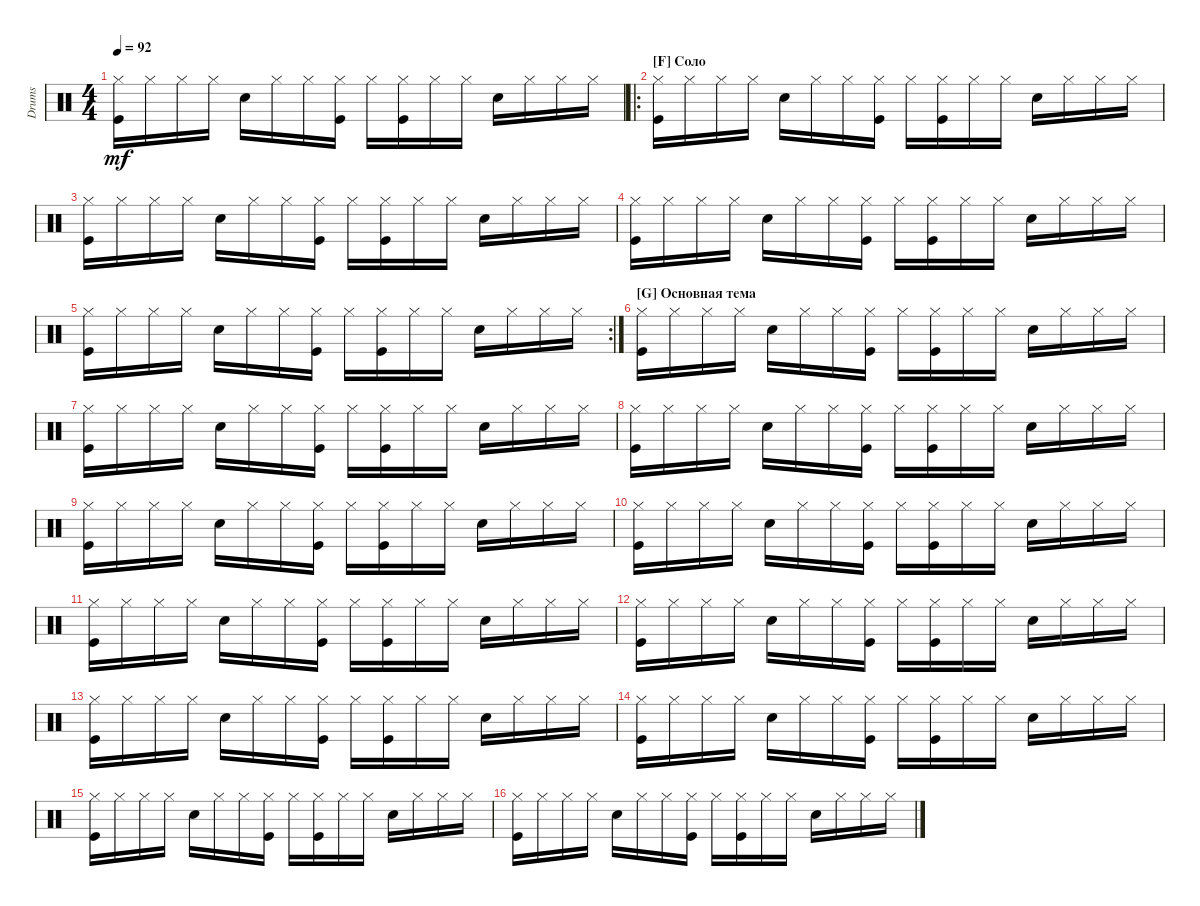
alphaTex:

\track ("Drumkit" "Drums") {instrument percussion}
\staff {score}
\articulation defaults
\ts (4 4)
\tempo 92
\clef neutral
\ks c
("Kick (hit)" "Hi-Hat (closed)").16{dy mf} "Hi-Hat (closed)".16 "Hi-Hat (closed)".16 "Hi-Hat (closed)".16 "Snare (hit) 2".16 "Hi-Hat (closed)".16 "Hi-Hat (closed)".16 ("Hi-Hat (closed)" "Kick (hit)").16 "Hi-Hat (closed)".16 ("Hi-Hat (closed)" "Kick (hit)").16 "Hi-Hat (closed)".16 "Hi-Hat (closed)".16 "Snare (hit) 2".16 "Hi-Hat (closed)".16 "Hi-Hat (closed)".16 "Hi-Hat (closed)".16 |
\ro
\section ("F" "Соло")
("Kick (hit)" "Hi-Hat (closed)").16 "Hi-Hat (closed)".16 "Hi-Hat (closed)".16 "Hi-Hat (closed)".16 "Snare (hit) 2".16 "Hi-Hat (closed)".16 "Hi-Hat (closed)".16 ("Hi-Hat (closed)" "Kick (hit)").16 "Hi-Hat (closed)".16 ("Hi-Hat (closed)" "Kick (hit)").16 "Hi-Hat (closed)".16 "Hi-Hat (closed)".16 "Snare (hit) 2".16 "Hi-Hat (closed)".16 "Hi-Hat (closed)".16 "Hi-Hat (closed)".16 |
("Kick (hit)" "Hi-Hat (closed)").16 "Hi-Hat (closed)".16 "Hi-Hat (closed)".16 "Hi-Hat (closed)".16 "Snare (hit) 2".16 "Hi-Hat (closed)".16 "Hi-Hat (closed)".16 ("Hi-Hat (closed)" "Kick (hit)").16 "Hi-Hat (closed)".16 ("Hi-Hat (closed)" "Kick (hit)").16 "Hi-Hat (closed)".16 "Hi-Hat (closed)".16 "Snare (hit) 2".16 "Hi-Hat (closed)".16 "Hi-Hat (closed)".16 "Hi-Hat (closed)".16 |
("Kick (hit)" "Hi-Hat (closed)").16 "Hi-Hat (closed)".16 "Hi-Hat (closed)".16 "Hi-Hat (closed)".16 "Snare (hit) 2".16 "Hi-Hat (closed)".16 "Hi-Hat (closed)".16 ("Hi-Hat (closed)" "Kick (hit)").16 "Hi-Hat (closed)".16 ("Hi-Hat (closed)" "Kick (hit)").16 "Hi-Hat (closed)".16 "Hi-Hat (closed)".16 "Snare (hit) 2".16 "Hi-Hat (closed)".16 "Hi-Hat (closed)".16 "Hi-Hat (closed)".16 |
\rc 2
("Kick (hit)" "Hi-Hat (closed)").16 "Hi-Hat (closed)".16 "Hi-Hat (closed)".16 "Hi-Hat (closed)".16 "Snare (hit) 2".16 "Hi-Hat (closed)".16 "Hi-Hat (closed)".16 ("Hi-Hat (closed)" "Kick (hit)").16 "Hi-Hat (closed)".16 ("Hi-Hat (closed)" "Kick (hit)").16 "Hi-Hat (closed)".16 "Hi-Hat (closed)".16 "Snare (hit) 2".16 "Hi-Hat (closed)".16 "Hi-Hat (closed)".16 "Hi-Hat (closed)".16 |
\section ("G" "Основная тема")
("Kick (hit)" "Hi-Hat (closed)").16 "Hi-Hat (closed)".16 "Hi-Hat (closed)".16 "Hi-Hat (closed)".16 "Snare (hit) 2".16 "Hi-Hat (closed)".16 "Hi-Hat (closed)".16 ("Hi-Hat (closed)" "Kick (hit)").16 "Hi-Hat (closed)".16 ("Hi-Hat (closed)" "Kick (hit)").16 "Hi-Hat (closed)".16 "Hi-Hat (closed)".16 "Snare (hit) 2".16 "Hi-Hat (closed)".16 "Hi-Hat (closed)".16 "Hi-Hat (closed)".16 |
("Kick (hit)" "Hi-Hat (closed)").16 "Hi-Hat (closed)".16 "Hi-Hat (closed)".16 "Hi-Hat (closed)".16 "Snare (hit) 2".16 "Hi-Hat (closed)".16 "Hi-Hat (closed)".16 ("Hi-Hat (closed)" "Kick (hit)").16 "Hi-Hat (closed)".16 ("Hi-Hat (closed)" "Kick (hit)").16 "Hi-Hat (closed)".16 "Hi-Hat (closed)".16 "Snare (hit) 2".16 "Hi-Hat (closed)".16 "Hi-Hat (closed)".16 "Hi-Hat (closed)".16 |
("Kick (hit)" "Hi-Hat (closed)").16 "Hi-Hat (closed)".16 "Hi-Hat (closed)".16 "Hi-Hat (closed)".16 "Snare (hit) 2".16 "Hi-Hat (closed)".16 "Hi-Hat (closed)".16 ("Hi-Hat (closed)" "Kick (hit)").16 "Hi-Hat (closed)".16 ("Hi-Hat (closed)" "Kick (hit)").16 "Hi-Hat (closed)".16 "Hi-Hat (closed)".16 "Snare (hit) 2".16 "Hi-Hat (closed)".16 "Hi-Hat (closed)".16 "Hi-Hat (closed)".16 |
("Kick (hit)" "Hi-Hat (closed)").16 "Hi-Hat (closed)".16 "Hi-Hat (closed)".16 "Hi-Hat (closed)".16 "Snare (hit) 2".16 "Hi-Hat (closed)".16 "Hi-Hat (closed)".16 ("Hi-Hat (closed)" "Kick (hit)").16 "Hi-Hat (closed)".16 ("Hi-Hat (closed)" "Kick (hit)").16 "Hi-Hat (closed)".16 "Hi-Hat (closed)".16 "Snare (hit) 2".16 "Hi-Hat (closed)".16 "Hi-Hat (closed)".16 "Hi-Hat (closed)".16 |
("Kick (hit)" "Hi-Hat (closed)").16 "Hi-Hat (closed)".16 "Hi-Hat (closed)".16 "Hi-Hat (closed)".16 "Snare (hit) 2".16 "Hi-Hat (closed)".16 "Hi-Hat (closed)".16 ("Hi-Hat (closed)" "Kick (hit)").16 "Hi-Hat (closed)".16 ("Hi-Hat (closed)" "Kick (hit)").16 "Hi-Hat (closed)".16 "Hi-Hat (closed)".16 "Snare (hit) 2".16 "Hi-Hat (closed)".16 "Hi-Hat (closed)".16 "Hi-Hat (closed)".16 |
("Kick (hit)" "Hi-Hat (closed)").16 "Hi-Hat (closed)".16 "Hi-Hat (closed)".16 "Hi-Hat (closed)".16 "Snare (hit) 2".16 "Hi-Hat (closed)".16 "Hi-Hat (closed)".16 ("Hi-Hat (closed)" "Kick (hit)").16 "Hi-Hat (closed)".16 ("Hi-Hat (closed)" "Kick (hit)").16 "Hi-Hat (closed)".16 "Hi-Hat (closed)".16 "Snare (hit) 2".16 "Hi-Hat (closed)".16 "Hi-Hat (closed)".16 "Hi-Hat (closed)".16 |
("Kick (hit)" "Hi-Hat (closed)").16 "Hi-Hat (closed)".16 "Hi-Hat (closed)".16 "Hi-Hat (closed)".16 "Snare (hit) 2".16 "Hi-Hat (closed)".16 "Hi-Hat (closed)".16 ("Hi-Hat (closed)" "Kick (hit)").16 "Hi-Hat (closed)".16 ("Hi-Hat (closed)" "Kick (hit)").16 "Hi-Hat (closed)".16 "Hi-Hat (closed)".16 "Snare (hit) 2".16 "Hi-Hat (closed)".16 "Hi-Hat (closed)".16 "Hi-Hat (closed)".16 |
("Kick (hit)" "Hi-Hat (closed)").16 "Hi-Hat (closed)".16 "Hi-Hat (closed)".16 "Hi-Hat (closed)".16 "Snare (hit) 2".16 "Hi-Hat (closed)".16 "Hi-Hat (closed)".16 ("Hi-Hat (closed)" "Kick (hit)").16 "Hi-Hat (closed)".16 ("Hi-Hat (closed)" "Kick (hit)").16 "Hi-Hat (closed)".16 "Hi-Hat (closed)".16 "Snare (hit) 2".16 "Hi-Hat (closed)".16 "Hi-Hat (closed)".16 "Hi-Hat (closed)".16 |
("Kick (hit)" "Hi-Hat (closed)").16 "Hi-Hat (closed)".16 "Hi-Hat (closed)".16 "Hi-Hat (closed)".16 "Snare (hit) 2".16 "Hi-Hat (closed)".16 "Hi-Hat (closed)".16 ("Hi-Hat (closed)" "Kick (hit)").16 "Hi-Hat (closed)".16 ("Hi-Hat (closed)" "Kick (hit)").16 "Hi-Hat (closed)".16 "Hi-Hat (closed)".16 "Snare (hit) 2".16 "Hi-Hat (closed)".16 "Hi-Hat (closed)".16 "Hi-Hat (closed)".16 |
("Kick (hit)" "Hi-Hat (closed)").16 "Hi-Hat (closed)".16 "Hi-Hat (closed)".16 "Hi-Hat (closed)".16 "Snare (hit) 2".16 "Hi-Hat (closed)".16 "Hi-Hat (closed)".16 ("Hi-Hat (closed)" "Kick (hit)").16 "Hi-Hat (closed)".16 ("Hi-Hat (closed)" "Kick (hit)").16 "Hi-Hat (closed)".16 "Hi-Hat (closed)".16 "Snare (hit) 2".16 "Hi-Hat (closed)".16 "Hi-Hat (closed)".16 "Hi-Hat (closed)".16 |
("Kick (hit)" "Hi-Hat (closed)").16 "Hi-Hat (closed)".16 "Hi-Hat (closed)".16 "Hi-Hat (closed)".16 "Snare (hit) 2".16 "Hi-Hat (closed)".16 "Hi-Hat (closed)".16 ("Hi-Hat (closed)" "Kick (hit)").16 "Hi-Hat (closed)".16 ("Hi-Hat (closed)" "Kick (hit)").16 "Hi-Hat (closed)".16 "Hi-Hat (closed)".16 "Snare (hit) 2".16 "Hi-Hat (closed)".16 "Hi-Hat (closed)".16 "Hi-Hat (closed)".16
